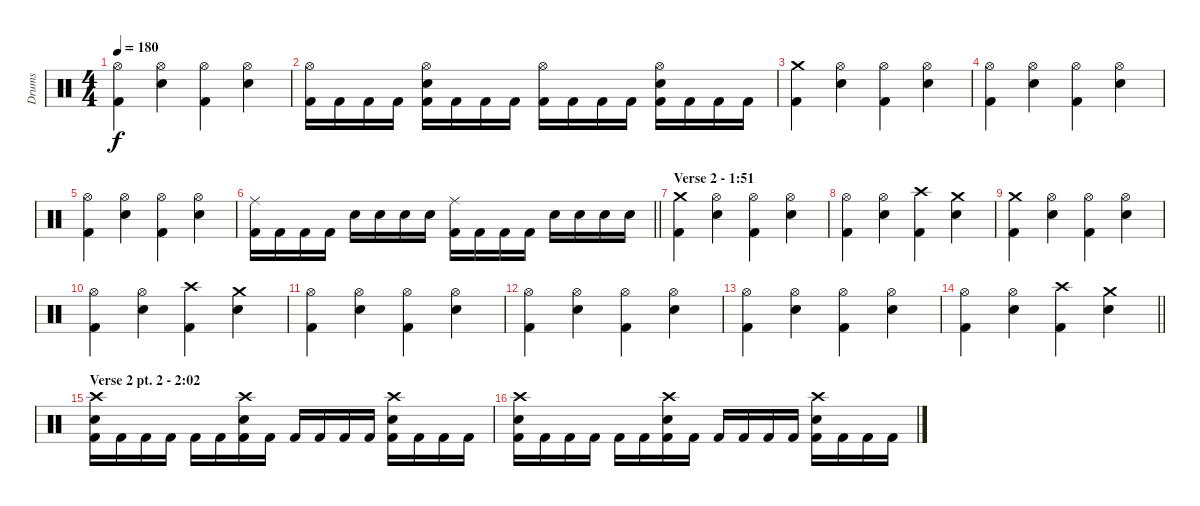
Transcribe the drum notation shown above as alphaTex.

\track ("Drums" "Drums") {instrument percussion}
\staff {score}
\articulation defaults
\ts (4 4)
\tempo 180
\clef neutral
\ks c
("Hi-Hat (open)" "Kick (hit) 2").4{dy f} ("Hi-Hat (open)" "Electric Snare (hit)").4 ("Hi-Hat (open)" "Kick (hit) 2").4 ("Hi-Hat (open)" "Electric Snare (hit)").4 |
("Hi-Hat (open)" "Kick (hit) 2").16 "Kick (hit) 2".16 "Kick (hit) 2".16 "Kick (hit) 2".16 ("Hi-Hat (open)" "Electric Snare (hit)" "Kick (hit) 2").16 "Kick (hit) 2".16 "Kick (hit) 2".16 "Kick (hit) 2".16 ("Hi-Hat (open)" "Kick (hit) 2").16 "Kick (hit) 2".16 "Kick (hit) 2".16 "Kick (hit) 2".16 ("Hi-Hat (open)" "Electric Snare (hit)" "Kick (hit) 2").16 "Kick (hit) 2".16 "Kick (hit) 2".16 "Kick (hit) 2".16 |
("Crash medium (hit)" "Kick (hit) 2").4 ("Hi-Hat (open)" "Electric Snare (hit)").4 ("Hi-Hat (open)" "Kick (hit) 2").4 ("Hi-Hat (open)" "Electric Snare (hit)").4 |
("Hi-Hat (open)" "Kick (hit) 2").4 ("Hi-Hat (open)" "Electric Snare (hit)").4 ("Hi-Hat (open)" "Kick (hit) 2").4 ("Hi-Hat (open)" "Electric Snare (hit)").4 |
("Hi-Hat (open)" "Kick (hit) 2").4 ("Hi-Hat (open)" "Electric Snare (hit)").4 ("Hi-Hat (open)" "Kick (hit) 2").4 ("Hi-Hat (open)" "Electric Snare (hit)").4 |
\barLineRight lightlight
("Ride (middle)" "Kick (hit) 2").16 "Kick (hit) 2".16 "Kick (hit) 2".16 "Kick (hit) 2".16 "Electric Snare (hit)".16 "Electric Snare (hit)".16 "Electric Snare (hit)".16 "Electric Snare (hit)".16 ("Ride (middle)" "Kick (hit) 2").16 "Kick (hit) 2".16 "Kick (hit) 2".16 "Kick (hit) 2".16 "Electric Snare (hit)".16 "Electric Snare (hit)".16 "Electric Snare (hit)".16 "Electric Snare (hit)".16 |
\section ("" "Verse 2 - 1:51")
("Crash medium (hit)" "Kick (hit) 2").4 ("Hi-Hat (open)" "Electric Snare (hit)").4 ("Hi-Hat (open)" "Kick (hit) 2").4 ("Hi-Hat (open)" "Electric Snare (hit)").4 |
("Hi-Hat (open)" "Kick (hit) 2").4 ("Hi-Hat (open)" "Electric Snare (hit)").4 ("Crash high (hit)" "Kick (hit) 2").4 ("Crash medium (hit)" "Electric Snare (hit)").4 |
("Crash medium (hit)" "Kick (hit) 2").4 ("Hi-Hat (open)" "Electric Snare (hit)").4 ("Hi-Hat (open)" "Kick (hit) 2").4 ("Hi-Hat (open)" "Electric Snare (hit)").4 |
("Hi-Hat (open)" "Kick (hit) 2").4 ("Hi-Hat (open)" "Electric Snare (hit)").4 ("Crash high (hit)" "Kick (hit) 2").4 ("Crash medium (hit)" "Electric Snare (hit)").4 |
("Hi-Hat (open)" "Kick (hit) 2").4 ("Hi-Hat (open)" "Electric Snare (hit)").4 ("Hi-Hat (open)" "Kick (hit) 2").4 ("Hi-Hat (open)" "Electric Snare (hit)").4 |
("Hi-Hat (open)" "Kick (hit) 2").4 ("Hi-Hat (open)" "Electric Snare (hit)").4 ("Hi-Hat (open)" "Kick (hit) 2").4 ("Hi-Hat (open)" "Electric Snare (hit)").4 |
("Hi-Hat (open)" "Kick (hit) 2").4 ("Hi-Hat (open)" "Electric Snare (hit)").4 ("Hi-Hat (open)" "Kick (hit) 2").4 ("Hi-Hat (open)" "Electric Snare (hit)").4 |
\barLineRight lightlight
("Hi-Hat (open)" "Kick (hit) 2").4 ("Hi-Hat (open)" "Electric Snare (hit)").4 ("Crash high (hit)" "Kick (hit) 2").4 ("Crash medium (hit)" "Electric Snare (hit)").4 |
\section ("" "Verse 2 pt. 2 - 2:02")
("Crash high (hit)" "Electric Snare (hit)" "Kick (hit) 2").16 "Kick (hit) 2".16 "Kick (hit) 2".16 "Kick (hit) 2".16 "Kick (hit) 2".16 "Kick (hit) 2".16 ("Crash high (hit)" "Electric Snare (hit)" "Kick (hit) 2").16 "Kick (hit) 2".16 "Kick (hit) 2".16 "Kick (hit) 2".16 "Kick (hit) 2".16 "Kick (hit) 2".16 ("Crash high (hit)" "Electric Snare (hit)" "Kick (hit) 2").16 "Kick (hit) 2".16 "Kick (hit) 2".16 "Kick (hit) 2".16 |
("Crash high (hit)" "Electric Snare (hit)" "Kick (hit) 2").16 "Kick (hit) 2".16 "Kick (hit) 2".16 "Kick (hit) 2".16 "Kick (hit) 2".16 "Kick (hit) 2".16 ("Crash high (hit)" "Electric Snare (hit)" "Kick (hit) 2").16 "Kick (hit) 2".16 "Kick (hit) 2".16 "Kick (hit) 2".16 "Kick (hit) 2".16 "Kick (hit) 2".16 ("Crash high (hit)" "Electric Snare (hit)" "Kick (hit) 2").16 "Kick (hit) 2".16 "Kick (hit) 2".16 "Kick (hit) 2".16
